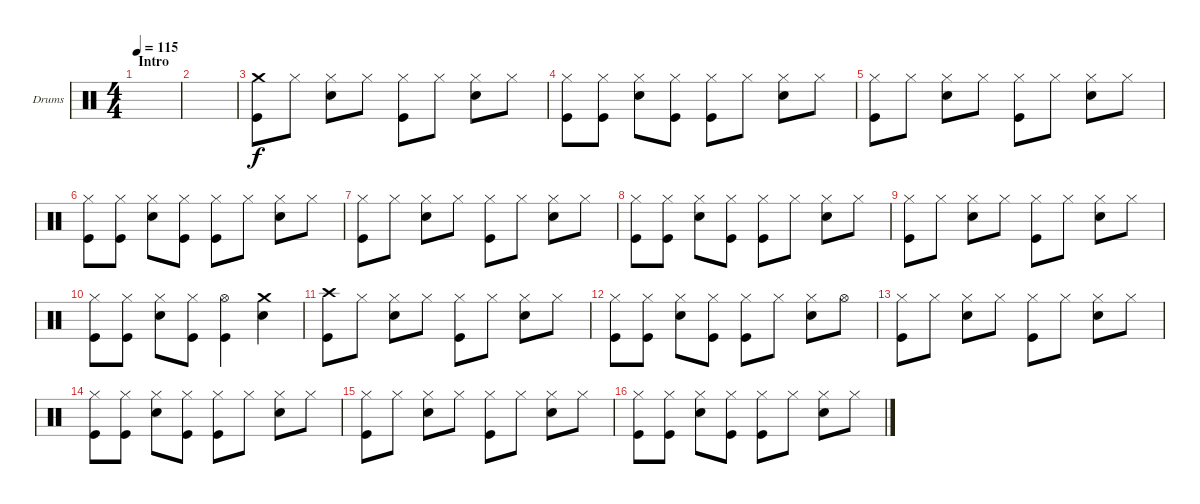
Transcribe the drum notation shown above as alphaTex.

\defaultSystemsLayout 4
\bracketExtendMode groupsimilarinstruments
\firstSystemTrackNameOrientation horizontal
\otherSystemsTrackNameOrientation horizontal
\track ("Drumkit (Curt Cress)" "Drums") {instrument percussion}
\staff {score}
\articulation defaults
\ts (4 4)
\section ("" "Intro")
\tempo 115
\clef neutral
\scale
1.05675
\ks c
|
\scale
0.943253 |
\scale
1.02648 ("Kick (hit)" "Crash medium (hit)").8 "Hi-Hat (closed)".8 ("Hi-Hat (closed)" "Snare (hit) 2").8 "Hi-Hat (closed)".8 ("Hi-Hat (closed)" "Kick (hit)").8 "Hi-Hat (closed)".8 ("Hi-Hat (closed)" "Snare (hit) 2").8 "Hi-Hat (closed)".8 |
\scale
0.973518 ("Kick (hit)" "Hi-Hat (closed)").8 ("Hi-Hat (closed)" "Kick (hit)").8 ("Hi-Hat (closed)" "Snare (hit) 2").8 ("Hi-Hat (closed)" "Kick (hit)").8 ("Hi-Hat (closed)" "Kick (hit)").8 "Hi-Hat (closed)".8 ("Hi-Hat (closed)" "Snare (hit) 2").8 "Hi-Hat (closed)".8 |
\scale
1.02648 ("Kick (hit)" "Hi-Hat (closed)").8 "Hi-Hat (closed)".8 ("Hi-Hat (closed)" "Snare (hit) 2").8 "Hi-Hat (closed)".8 ("Hi-Hat (closed)" "Kick (hit)").8 "Hi-Hat (closed)".8 ("Hi-Hat (closed)" "Snare (hit) 2").8 "Hi-Hat (closed)".8 |
\scale
0.973518 ("Kick (hit)" "Hi-Hat (closed)").8 ("Hi-Hat (closed)" "Kick (hit)").8 ("Hi-Hat (closed)" "Snare (hit) 2").8 ("Hi-Hat (closed)" "Kick (hit)").8 ("Hi-Hat (closed)" "Kick (hit)").8 "Hi-Hat (closed)".8 ("Hi-Hat (closed)" "Snare (hit) 2").8 "Hi-Hat (closed)".8 |
\scale
1.02648 ("Kick (hit)" "Hi-Hat (closed)").8 "Hi-Hat (closed)".8 ("Hi-Hat (closed)" "Snare (hit) 2").8 "Hi-Hat (closed)".8 ("Hi-Hat (closed)" "Kick (hit)").8 "Hi-Hat (closed)".8 ("Hi-Hat (closed)" "Snare (hit) 2").8 "Hi-Hat (closed)".8 |
\scale
0.973518 ("Kick (hit)" "Hi-Hat (closed)").8 ("Hi-Hat (closed)" "Kick (hit)").8 ("Hi-Hat (closed)" "Snare (hit) 2").8 ("Hi-Hat (closed)" "Kick (hit)").8 ("Hi-Hat (closed)" "Kick (hit)").8 "Hi-Hat (closed)".8 ("Hi-Hat (closed)" "Snare (hit) 2").8 "Hi-Hat (closed)".8 |
\scale
1.02648 ("Kick (hit)" "Hi-Hat (closed)").8 "Hi-Hat (closed)".8 ("Hi-Hat (closed)" "Snare (hit) 2").8 "Hi-Hat (closed)".8 ("Hi-Hat (closed)" "Kick (hit)").8 "Hi-Hat (closed)".8 ("Hi-Hat (closed)" "Snare (hit) 2").8 "Hi-Hat (closed)".8 |
\scale
0.973518 ("Kick (hit)" "Hi-Hat (closed)").8 ("Hi-Hat (closed)" "Kick (hit)").8 ("Hi-Hat (closed)" "Snare (hit) 2").8 ("Hi-Hat (closed)" "Kick (hit)").8 ("Kick (hit)" "Hi-Hat (open)").4 ("Snare (hit) 2" "Crash medium (hit)").4 |
\scale
1.02648 ("Kick (hit)" "Crash high (hit)").8 "Hi-Hat (closed)".8 ("Hi-Hat (closed)" "Snare (hit) 2").8 "Hi-Hat (closed)".8 ("Hi-Hat (closed)" "Kick (hit)").8 "Hi-Hat (closed)".8 ("Hi-Hat (closed)" "Snare (hit) 2").8 "Hi-Hat (closed)".8 |
\scale
0.973518 ("Kick (hit)" "Hi-Hat (closed)").8 ("Hi-Hat (closed)" "Kick (hit)").8 ("Hi-Hat (closed)" "Snare (hit) 2").8 ("Hi-Hat (closed)" "Kick (hit)").8 ("Hi-Hat (closed)" "Kick (hit)").8 "Hi-Hat (closed)".8 ("Hi-Hat (closed)" "Snare (hit) 2").8 "Hi-Hat (open)".8 |
\scale
1.02648 ("Kick (hit)" "Hi-Hat (closed)").8 "Hi-Hat (closed)".8 ("Hi-Hat (closed)" "Snare (hit) 2").8 "Hi-Hat (closed)".8 ("Hi-Hat (closed)" "Kick (hit)").8 "Hi-Hat (closed)".8 ("Hi-Hat (closed)" "Snare (hit) 2").8 "Hi-Hat (closed)".8 |
\scale
0.973518 ("Kick (hit)" "Hi-Hat (closed)").8 ("Hi-Hat (closed)" "Kick (hit)").8 ("Hi-Hat (closed)" "Snare (hit) 2").8 ("Hi-Hat (closed)" "Kick (hit)").8 ("Hi-Hat (closed)" "Kick (hit)").8 "Hi-Hat (closed)".8 ("Hi-Hat (closed)" "Snare (hit) 2").8 "Hi-Hat (closed)".8 |
\scale
1.02648 ("Kick (hit)" "Hi-Hat (closed)").8 "Hi-Hat (closed)".8 ("Hi-Hat (closed)" "Snare (hit) 2").8 "Hi-Hat (closed)".8 ("Hi-Hat (closed)" "Kick (hit)").8 "Hi-Hat (closed)".8 ("Hi-Hat (closed)" "Snare (hit) 2").8 "Hi-Hat (closed)".8 |
\scale
0.973518 ("Kick (hit)" "Hi-Hat (closed)").8 ("Hi-Hat (closed)" "Kick (hit)").8 ("Hi-Hat (closed)" "Snare (hit) 2").8 ("Hi-Hat (closed)" "Kick (hit)").8 ("Hi-Hat (closed)" "Kick (hit)").8 "Hi-Hat (closed)".8 ("Hi-Hat (closed)" "Snare (hit) 2").8 "Hi-Hat (closed)".8
